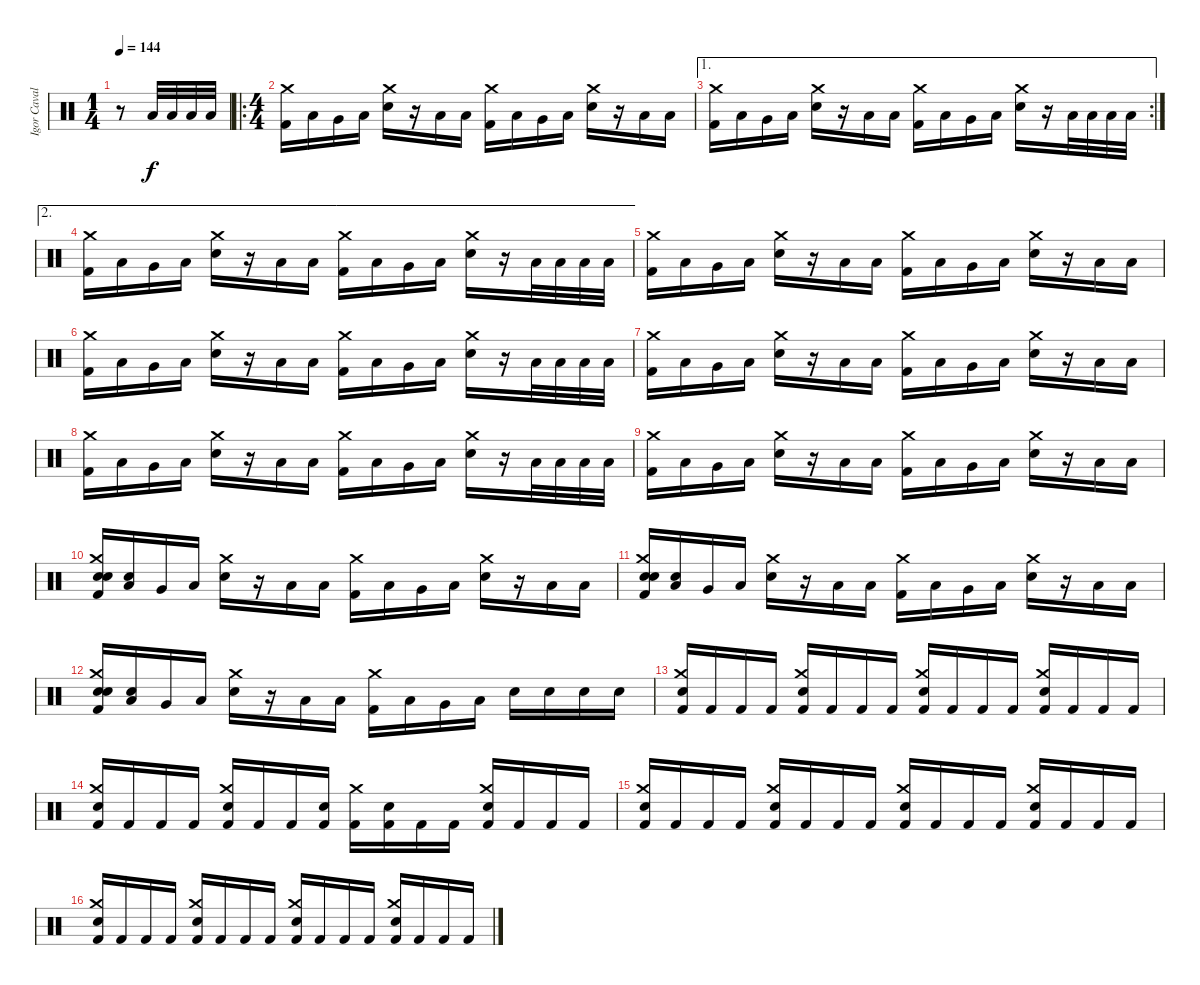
\track ("Igor Cavalera" "Igor Caval") {instrument percussion}
\staff {score}
\articulation defaults
\ts (1 4)
\tempo 144
\clef neutral
\ks c
r.8{dy f} "Low Tom (hit)".32 "Low Tom (hit)".32 "Low Tom (hit)".32 "Low Tom (hit)".32 |
\ro
\ts (4 4)
("Kick (hit) 2" "Crash medium (hit)").16 "Low Tom (hit)".16 "Very Low Tom (hit)".16 "Low Floor Tom (hit)".16 ("Electric Snare (hit)" "Crash medium (hit)").16 r.16 "Low Floor Tom (hit)".16 "Low Tom (hit)".16 ("Kick (hit) 2" "Crash medium (hit)").16 "Low Tom (hit)".16 "Very Low Tom (hit)".16 "Low Floor Tom (hit)".16 ("Electric Snare (hit)" "Crash medium (hit)").16 r.16 "Low Floor Tom (hit)".16 "Low Tom (hit)".16 |
\ae 1
\rc 2
("Kick (hit) 2" "Crash medium (hit)").16 "Low Tom (hit)".16 "Very Low Tom (hit)".16 "Low Floor Tom (hit)".16 ("Electric Snare (hit)" "Crash medium (hit)").16 r.16 "Low Floor Tom (hit)".16 "Low Tom (hit)".16 ("Kick (hit) 2" "Crash medium (hit)").16 "Low Tom (hit)".16 "Very Low Tom (hit)".16 "Low Floor Tom (hit)".16 ("Electric Snare (hit)" "Crash medium (hit)").16 r.16 "Low Tom (hit)".32 "Low Tom (hit)".32 "Low Tom (hit)".32 "Low Tom (hit)".32 |
\ae 2
("Kick (hit) 2" "Crash medium (hit)").16 "Low Tom (hit)".16 "Very Low Tom (hit)".16 "Low Floor Tom (hit)".16 ("Electric Snare (hit)" "Crash medium (hit)").16 r.16 "Low Floor Tom (hit)".16 "Low Tom (hit)".16 ("Kick (hit) 2" "Crash medium (hit)").16 "Low Tom (hit)".16 "Very Low Tom (hit)".16 "Low Floor Tom (hit)".16 ("Electric Snare (hit)" "Crash medium (hit)").16 r.16 "Low Tom (hit)".32 "Low Tom (hit)".32 "Low Tom (hit)".32 "Low Tom (hit)".32 |
("Kick (hit) 2" "Crash medium (hit)").16 "Low Tom (hit)".16 "Very Low Tom (hit)".16 "Low Floor Tom (hit)".16 ("Electric Snare (hit)" "Crash medium (hit)").16 r.16 "Low Floor Tom (hit)".16 "Low Tom (hit)".16 ("Kick (hit) 2" "Crash medium (hit)").16 "Low Tom (hit)".16 "Very Low Tom (hit)".16 "Low Floor Tom (hit)".16 ("Electric Snare (hit)" "Crash medium (hit)").16 r.16 "Low Floor Tom (hit)".16 "Low Tom (hit)".16 |
("Kick (hit) 2" "Crash medium (hit)").16 "Low Tom (hit)".16 "Very Low Tom (hit)".16 "Low Floor Tom (hit)".16 ("Electric Snare (hit)" "Crash medium (hit)").16 r.16 "Low Floor Tom (hit)".16 "Low Tom (hit)".16 ("Kick (hit) 2" "Crash medium (hit)").16 "Low Tom (hit)".16 "Very Low Tom (hit)".16 "Low Floor Tom (hit)".16 ("Electric Snare (hit)" "Crash medium (hit)").16 r.16 "Low Tom (hit)".32 "Low Tom (hit)".32 "Low Tom (hit)".32 "Low Tom (hit)".32 |
("Kick (hit) 2" "Crash medium (hit)").16 "Low Tom (hit)".16 "Very Low Tom (hit)".16 "Low Floor Tom (hit)".16 ("Electric Snare (hit)" "Crash medium (hit)").16 r.16 "Low Floor Tom (hit)".16 "Low Tom (hit)".16 ("Kick (hit) 2" "Crash medium (hit)").16 "Low Tom (hit)".16 "Very Low Tom (hit)".16 "Low Floor Tom (hit)".16 ("Electric Snare (hit)" "Crash medium (hit)").16 r.16 "Low Floor Tom (hit)".16 "Low Tom (hit)".16 |
("Kick (hit) 2" "Crash medium (hit)").16 "Low Tom (hit)".16 "Very Low Tom (hit)".16 "Low Floor Tom (hit)".16 ("Electric Snare (hit)" "Crash medium (hit)").16 r.16 "Low Floor Tom (hit)".16 "Low Tom (hit)".16 ("Kick (hit) 2" "Crash medium (hit)").16 "Low Tom (hit)".16 "Very Low Tom (hit)".16 "Low Floor Tom (hit)".16 ("Electric Snare (hit)" "Crash medium (hit)").16 r.16 "Low Tom (hit)".32 "Low Tom (hit)".32 "Low Tom (hit)".32 "Low Tom (hit)".32 |
("Kick (hit) 2" "Crash medium (hit)").16 "Low Tom (hit)".16 "Very Low Tom (hit)".16 "Low Floor Tom (hit)".16 ("Electric Snare (hit)" "Crash medium (hit)").16 r.16 "Low Floor Tom (hit)".16 "Low Tom (hit)".16 ("Kick (hit) 2" "Crash medium (hit)").16 "Low Tom (hit)".16 "Very Low Tom (hit)".16 "Low Floor Tom (hit)".16 ("Electric Snare (hit)" "Crash medium (hit)").16 r.16 "Low Floor Tom (hit)".16 "Low Tom (hit)".16 |
("Kick (hit) 2" "Crash medium (hit)" "Snare (hit) 2" "Snare (hit) 2").16 ("Low Tom (hit)" "Snare (hit) 2").16 "Very Low Tom (hit)".16 "Low Floor Tom (hit)".16 ("Electric Snare (hit)" "Crash medium (hit)").16 r.16 "Low Floor Tom (hit)".16 "Low Tom (hit)".16 ("Kick (hit) 2" "Crash medium (hit)").16 "Low Tom (hit)".16 "Very Low Tom (hit)".16 "Low Floor Tom (hit)".16 ("Electric Snare (hit)" "Crash medium (hit)").16 r.16 "Low Floor Tom (hit)".16 "Low Tom (hit)".16 |
("Kick (hit) 2" "Crash medium (hit)" "Snare (hit) 2" "Snare (hit) 2").16 ("Low Tom (hit)" "Snare (hit) 2").16 "Very Low Tom (hit)".16 "Low Floor Tom (hit)".16 ("Electric Snare (hit)" "Crash medium (hit)").16 r.16 "Low Floor Tom (hit)".16 "Low Tom (hit)".16 ("Kick (hit) 2" "Crash medium (hit)").16 "Low Tom (hit)".16 "Very Low Tom (hit)".16 "Low Floor Tom (hit)".16 ("Electric Snare (hit)" "Crash medium (hit)").16 r.16 "Low Floor Tom (hit)".16 "Low Tom (hit)".16 |
("Kick (hit) 2" "Crash medium (hit)" "Snare (hit) 2" "Snare (hit) 2").16 ("Low Tom (hit)" "Snare (hit) 2").16 "Very Low Tom (hit)".16 "Low Floor Tom (hit)".16 ("Electric Snare (hit)" "Crash medium (hit)").16 r.16 "Low Floor Tom (hit)".16 "Low Tom (hit)".16 ("Kick (hit) 2" "Crash medium (hit)").16 "Low Tom (hit)".16 "Very Low Tom (hit)".16 "Low Floor Tom (hit)".16 "Snare (hit) 2".16 "Snare (hit) 2".16 "Snare (hit) 2".16 "Snare (hit) 2".16 |
("Kick (hit) 2" "Snare (hit) 2" "Crash medium (hit)").16 "Kick (hit) 2".16 "Kick (hit) 2".16 "Kick (hit) 2".16 ("Kick (hit) 2" "Snare (hit) 2" "Crash medium (hit)").16 "Kick (hit) 2".16 "Kick (hit) 2".16 "Kick (hit) 2".16 ("Kick (hit) 2" "Snare (hit) 2" "Crash medium (hit)").16 "Kick (hit) 2".16 "Kick (hit) 2".16 "Kick (hit) 2".16 ("Kick (hit) 2" "Snare (hit) 2" "Crash medium (hit)").16 "Kick (hit) 2".16 "Kick (hit) 2".16 "Kick (hit) 2".16 |
("Kick (hit) 2" "Snare (hit) 2" "Crash medium (hit)").16 "Kick (hit) 2".16 "Kick (hit) 2".16 "Kick (hit) 2".16 ("Kick (hit) 2" "Snare (hit) 2" "Crash medium (hit)").16 "Kick (hit) 2".16 "Kick (hit) 2".16 ("Kick (hit) 2" "Snare (hit) 2").16 ("Kick (hit) 2" "Crash medium (hit)").16 ("Kick (hit) 2" "Snare (hit) 2").16 "Kick (hit) 2".16 "Kick (hit) 2".16 ("Kick (hit) 2" "Snare (hit) 2" "Crash medium (hit)").16 "Kick (hit) 2".16 "Kick (hit) 2".16 "Kick (hit) 2".16 |
("Kick (hit) 2" "Snare (hit) 2" "Crash medium (hit)").16 "Kick (hit) 2".16 "Kick (hit) 2".16 "Kick (hit) 2".16 ("Kick (hit) 2" "Snare (hit) 2" "Crash medium (hit)").16 "Kick (hit) 2".16 "Kick (hit) 2".16 "Kick (hit) 2".16 ("Kick (hit) 2" "Snare (hit) 2" "Crash medium (hit)").16 "Kick (hit) 2".16 "Kick (hit) 2".16 "Kick (hit) 2".16 ("Kick (hit) 2" "Snare (hit) 2" "Crash medium (hit)").16 "Kick (hit) 2".16 "Kick (hit) 2".16 "Kick (hit) 2".16 |
("Kick (hit) 2" "Snare (hit) 2" "Crash medium (hit)").16 "Kick (hit) 2".16 "Kick (hit) 2".16 "Kick (hit) 2".16 ("Kick (hit) 2" "Snare (hit) 2" "Crash medium (hit)").16 "Kick (hit) 2".16 "Kick (hit) 2".16 "Kick (hit) 2".16 ("Kick (hit) 2" "Snare (hit) 2" "Crash medium (hit)").16 "Kick (hit) 2".16 "Kick (hit) 2".16 "Kick (hit) 2".16 ("Kick (hit) 2" "Snare (hit) 2" "Crash medium (hit)").16 "Kick (hit) 2".16 "Kick (hit) 2".16 "Kick (hit) 2".16
